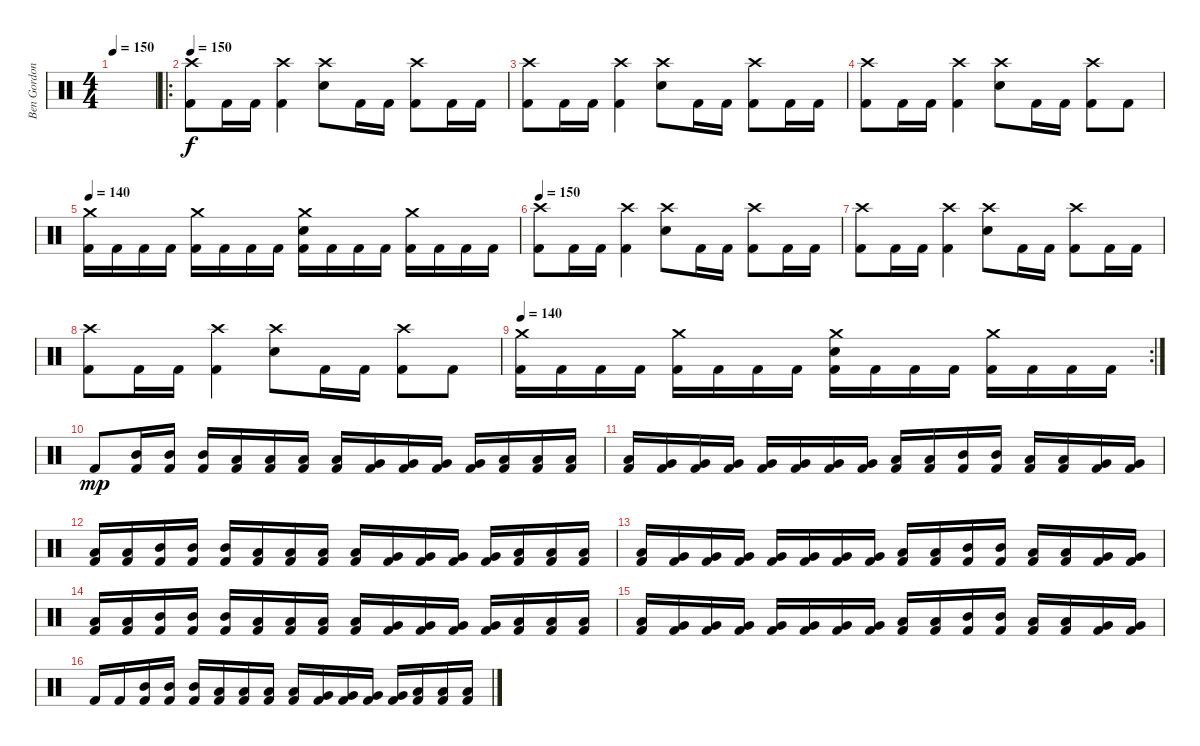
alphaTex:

\track ("Ben Gordon" "Ben Gordon") {instrument percussion}
\staff {score}
\articulation defaults
\ts (4 4)
\tempo 150
\tempo 130
\tempo 150
\clef neutral
\ks c
|
\ro
\tempo 150
("Crash high (hit)" "Kick (hit) 2").8{volume 16} "Kick (hit) 2".16 "Kick (hit) 2".16 ("Crash high (hit)" "Kick (hit) 2").4 ("Crash high (hit)" "Snare (hit) 2").8 "Kick (hit) 2".16 "Kick (hit) 2".16 ("Crash high (hit)" "Kick (hit) 2").8 "Kick (hit) 2".16 "Kick (hit) 2".16 |
("Crash high (hit)" "Kick (hit) 2").8 "Kick (hit) 2".16 "Kick (hit) 2".16 ("Crash high (hit)" "Kick (hit) 2").4 ("Crash high (hit)" "Snare (hit) 2").8 "Kick (hit) 2".16 "Kick (hit) 2".16 ("Crash high (hit)" "Kick (hit) 2").8 "Kick (hit) 2".16 "Kick (hit) 2".16 |
("Crash high (hit)" "Kick (hit) 2").8 "Kick (hit) 2".16 "Kick (hit) 2".16 ("Crash high (hit)" "Kick (hit) 2").4 ("Crash high (hit)" "Snare (hit) 2").8 "Kick (hit) 2".16 "Kick (hit) 2".16 ("Crash high (hit)" "Kick (hit) 2").8 "Kick (hit) 2".8 |
\tempo 140
("Crash medium (hit)" "Kick (hit) 2").16 "Kick (hit) 2".16 "Kick (hit) 2".16 "Kick (hit) 2".16 ("Crash medium (hit)" "Kick (hit) 2").16 "Kick (hit) 2".16 "Kick (hit) 2".16 "Kick (hit) 2".16 ("Crash medium (hit)" "Snare (hit) 2" "Kick (hit) 2").16 "Kick (hit) 2".16 "Kick (hit) 2".16 "Kick (hit) 2".16 ("Crash medium (hit)" "Kick (hit) 2").16 "Kick (hit) 2".16 "Kick (hit) 2".16 "Kick (hit) 2".16 |
\tempo 150
("Crash high (hit)" "Kick (hit) 2").8{volume 16} "Kick (hit) 2".16 "Kick (hit) 2".16 ("Crash high (hit)" "Kick (hit) 2").4 ("Crash high (hit)" "Snare (hit) 2").8 "Kick (hit) 2".16 "Kick (hit) 2".16 ("Crash high (hit)" "Kick (hit) 2").8 "Kick (hit) 2".16 "Kick (hit) 2".16 |
("Crash high (hit)" "Kick (hit) 2").8 "Kick (hit) 2".16 "Kick (hit) 2".16 ("Crash high (hit)" "Kick (hit) 2").4 ("Crash high (hit)" "Snare (hit) 2").8 "Kick (hit) 2".16 "Kick (hit) 2".16 ("Crash high (hit)" "Kick (hit) 2").8 "Kick (hit) 2".16 "Kick (hit) 2".16 |
("Crash high (hit)" "Kick (hit) 2").8 "Kick (hit) 2".16 "Kick (hit) 2".16 ("Crash high (hit)" "Kick (hit) 2").4 ("Crash high (hit)" "Snare (hit) 2").8 "Kick (hit) 2".16 "Kick (hit) 2".16 ("Crash high (hit)" "Kick (hit) 2").8 "Kick (hit) 2".8 |
\rc 2
\tempo 140
("Crash medium (hit)" "Kick (hit) 2").16 "Kick (hit) 2".16 "Kick (hit) 2".16 "Kick (hit) 2".16 ("Crash medium (hit)" "Kick (hit) 2").16 "Kick (hit) 2".16 "Kick (hit) 2".16 "Kick (hit) 2".16 ("Crash medium (hit)" "Snare (hit) 2" "Kick (hit) 2").16 "Kick (hit) 2".16 "Kick (hit) 2".16 "Kick (hit) 2".16 ("Crash medium (hit)" "Kick (hit) 2").16 "Kick (hit) 2".16 "Kick (hit) 2".16 "Kick (hit) 2".16 |
"Kick (hit) 2".8{dy mp} ("Mid Tom (hit)" "Kick (hit) 2").16 ("Mid Tom (hit)" "Kick (hit) 2").16 ("Mid Tom (hit)" "Kick (hit) 2").16 ("Low Tom (hit)" "Kick (hit) 2").16 ("Low Tom (hit)" "Kick (hit) 2").16 ("Low Tom (hit)" "Kick (hit) 2").16 ("Low Tom (hit)" "Kick (hit) 2").16 ("Very Low Tom (hit)" "Kick (hit) 2").16 ("Very Low Tom (hit)" "Kick (hit) 2").16 ("Very Low Tom (hit)" "Kick (hit) 2").16 ("Very Low Tom (hit)" "Kick (hit) 2").16 ("Low Tom (hit)" "Kick (hit) 2").16 ("Low Tom (hit)" "Kick (hit) 2").16 ("Low Tom (hit)" "Kick (hit) 2").16 |
("Low Tom (hit)" "Kick (hit) 2").16 ("Very Low Tom (hit)" "Kick (hit) 2").16 ("Very Low Tom (hit)" "Kick (hit) 2").16 ("Very Low Tom (hit)" "Kick (hit) 2").16 ("Very Low Tom (hit)" "Kick (hit) 2").16 ("Very Low Tom (hit)" "Kick (hit) 2").16 ("Very Low Tom (hit)" "Kick (hit) 2").16 ("Very Low Tom (hit)" "Kick (hit) 2").16 ("Low Tom (hit)" "Kick (hit) 2").16 ("Low Tom (hit)" "Kick (hit) 2").16 ("Mid Tom (hit)" "Kick (hit) 2").16 ("Mid Tom (hit)" "Kick (hit) 2").16 ("Low Tom (hit)" "Kick (hit) 2").16 ("Low Tom (hit)" "Kick (hit) 2").16 ("Very Low Tom (hit)" "Kick (hit) 2").16 ("Very Low Tom (hit)" "Kick (hit) 2").16 |
("Low Tom (hit)" "Kick (hit) 2").16 ("Low Tom (hit)" "Kick (hit) 2").16 ("Mid Tom (hit)" "Kick (hit) 2").16 ("Mid Tom (hit)" "Kick (hit) 2").16 ("Mid Tom (hit)" "Kick (hit) 2").16 ("Low Tom (hit)" "Kick (hit) 2").16 ("Low Tom (hit)" "Kick (hit) 2").16 ("Low Tom (hit)" "Kick (hit) 2").16 ("Low Tom (hit)" "Kick (hit) 2").16 ("Very Low Tom (hit)" "Kick (hit) 2").16 ("Very Low Tom (hit)" "Kick (hit) 2").16 ("Very Low Tom (hit)" "Kick (hit) 2").16 ("Very Low Tom (hit)" "Kick (hit) 2").16 ("Low Tom (hit)" "Kick (hit) 2").16 ("Low Tom (hit)" "Kick (hit) 2").16 ("Low Tom (hit)" "Kick (hit) 2").16 |
("Low Tom (hit)" "Kick (hit) 2").16 ("Very Low Tom (hit)" "Kick (hit) 2").16 ("Very Low Tom (hit)" "Kick (hit) 2").16 ("Very Low Tom (hit)" "Kick (hit) 2").16 ("Very Low Tom (hit)" "Kick (hit) 2").16 ("Very Low Tom (hit)" "Kick (hit) 2").16 ("Very Low Tom (hit)" "Kick (hit) 2").16 ("Very Low Tom (hit)" "Kick (hit) 2").16 ("Low Tom (hit)" "Kick (hit) 2").16 ("Low Tom (hit)" "Kick (hit) 2").16 ("Mid Tom (hit)" "Kick (hit) 2").16 ("Mid Tom (hit)" "Kick (hit) 2").16 ("Low Tom (hit)" "Kick (hit) 2").16 ("Low Tom (hit)" "Kick (hit) 2").16 ("Very Low Tom (hit)" "Kick (hit) 2").16 ("Very Low Tom (hit)" "Kick (hit) 2").16 |
("Low Tom (hit)" "Kick (hit) 2").16 ("Low Tom (hit)" "Kick (hit) 2").16 ("Mid Tom (hit)" "Kick (hit) 2").16 ("Mid Tom (hit)" "Kick (hit) 2").16 ("Mid Tom (hit)" "Kick (hit) 2").16 ("Low Tom (hit)" "Kick (hit) 2").16 ("Low Tom (hit)" "Kick (hit) 2").16 ("Low Tom (hit)" "Kick (hit) 2").16 ("Low Tom (hit)" "Kick (hit) 2").16 ("Very Low Tom (hit)" "Kick (hit) 2").16 ("Very Low Tom (hit)" "Kick (hit) 2").16 ("Very Low Tom (hit)" "Kick (hit) 2").16 ("Very Low Tom (hit)" "Kick (hit) 2").16 ("Low Tom (hit)" "Kick (hit) 2").16 ("Low Tom (hit)" "Kick (hit) 2").16 ("Low Tom (hit)" "Kick (hit) 2").16 |
("Low Tom (hit)" "Kick (hit) 2").16 ("Very Low Tom (hit)" "Kick (hit) 2").16 ("Very Low Tom (hit)" "Kick (hit) 2").16 ("Very Low Tom (hit)" "Kick (hit) 2").16 ("Very Low Tom (hit)" "Kick (hit) 2").16 ("Very Low Tom (hit)" "Kick (hit) 2").16 ("Very Low Tom (hit)" "Kick (hit) 2").16 ("Very Low Tom (hit)" "Kick (hit) 2").16 ("Low Tom (hit)" "Kick (hit) 2").16 ("Low Tom (hit)" "Kick (hit) 2").16 ("Mid Tom (hit)" "Kick (hit) 2").16 ("Mid Tom (hit)" "Kick (hit) 2").16 ("Low Tom (hit)" "Kick (hit) 2").16 ("Low Tom (hit)" "Kick (hit) 2").16 ("Very Low Tom (hit)" "Kick (hit) 2").16 ("Very Low Tom (hit)" "Kick (hit) 2").16 |
"Kick (hit) 2".16 "Kick (hit) 2".16 ("Mid Tom (hit)" "Kick (hit) 2").16 ("Mid Tom (hit)" "Kick (hit) 2").16 ("Mid Tom (hit)" "Kick (hit) 2").16 ("Low Tom (hit)" "Kick (hit) 2").16 ("Low Tom (hit)" "Kick (hit) 2").16 ("Low Tom (hit)" "Kick (hit) 2").16 ("Low Tom (hit)" "Kick (hit) 2").16 ("Very Low Tom (hit)" "Kick (hit) 2").16 ("Very Low Tom (hit)" "Kick (hit) 2").16 ("Very Low Tom (hit)" "Kick (hit) 2").16 ("Very Low Tom (hit)" "Kick (hit) 2").16 ("Low Tom (hit)" "Kick (hit) 2").16 ("Low Tom (hit)" "Kick (hit) 2").16 ("Low Tom (hit)" "Kick (hit) 2").16
